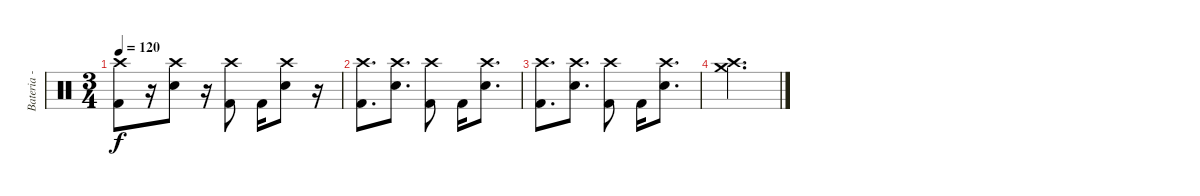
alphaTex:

\track ("Bateria - Larzon" "Bateria - ") {instrument percussion}
\staff {score}
\articulation defaults
\ts (3 4)
\tempo 120
\clef neutral
\ks c
("Kick (hit) 2" "Crash high (hit)").8{dy f} r.16 ("Snare (hit) 2" "Crash high (hit)").8 r.16 ("Kick (hit) 2" "Crash high (hit)").8 "Kick (hit) 2".16 ("Snare (hit) 2" "Crash high (hit)").8 r.16 |
("Kick (hit) 2" "Crash high (hit)").8{d} ("Snare (hit) 2" "Crash high (hit)").8{d} ("Kick (hit) 2" "Crash high (hit)").8 "Kick (hit) 2".16 ("Snare (hit) 2" "Crash high (hit)").8{d} |
("Kick (hit) 2" "Crash high (hit)").8{d} ("Snare (hit) 2" "Crash high (hit)").8{d} ("Kick (hit) 2" "Crash high (hit)").8 "Kick (hit) 2".16 ("Snare (hit) 2" "Crash high (hit)").8{d} |
("Crash medium (hit)" "Crash high (hit)").2{d}
